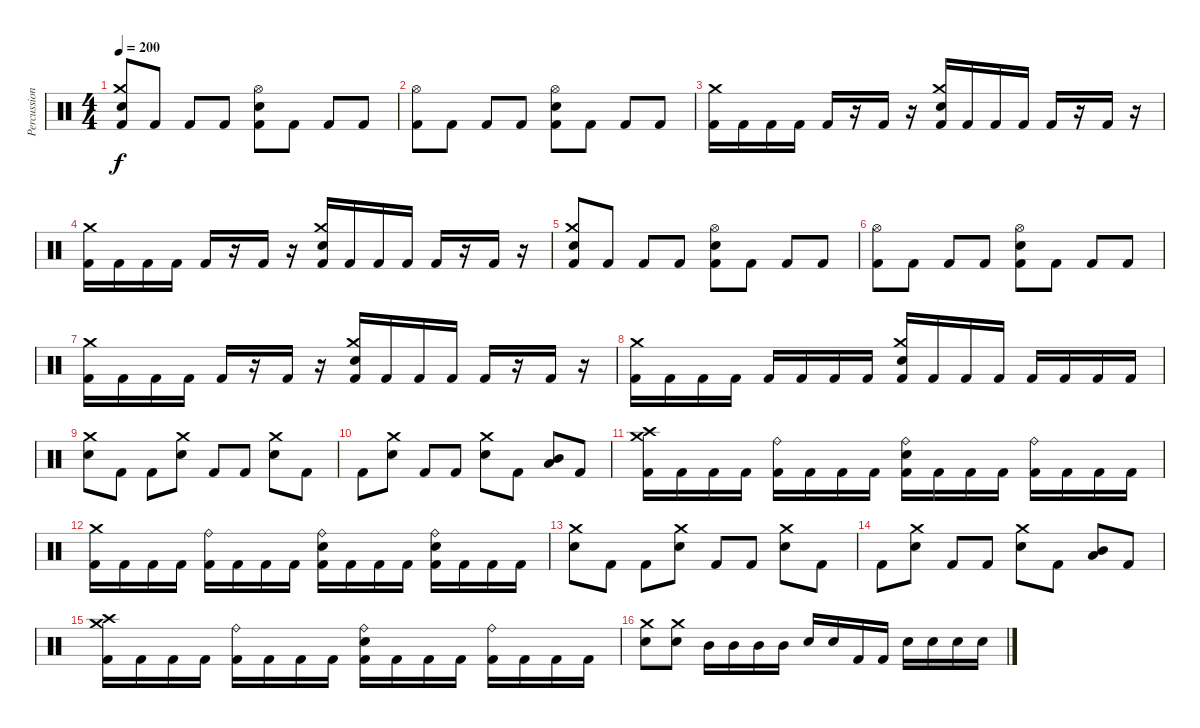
\track ("Percussion" "Percussion") {instrument percussion}
\staff {score}
\articulation defaults
\ts (4 4)
\tempo 200
\clef neutral
\ks c
("Snare (hit)" "Crash medium (hit)" "Kick (hit) 2").8{dy f} "Kick (hit) 2".8 "Kick (hit) 2".8 "Kick (hit) 2".8 ("Hi-Hat (open)" "Snare (hit) 2" "Kick (hit) 2").8 "Kick (hit) 2".8 "Kick (hit) 2".8 "Kick (hit) 2".8 |
("Hi-Hat (open)" "Kick (hit) 2").8 "Kick (hit) 2".8 "Kick (hit) 2".8 "Kick (hit) 2".8 ("Hi-Hat (open)" "Snare (hit) 2" "Kick (hit) 2").8 "Kick (hit) 2".8 "Kick (hit) 2".8 "Kick (hit) 2".8 |
("Crash medium (hit)" "Kick (hit) 2").16 "Kick (hit) 2".16 "Kick (hit) 2".16 "Kick (hit) 2".16 "Kick (hit) 2".16 r.16 "Kick (hit) 2".16 r.16 ("Crash medium (hit)" "Snare (hit) 2" "Kick (hit) 2").16 "Kick (hit) 2".16 "Kick (hit) 2".16 "Kick (hit) 2".16 "Kick (hit) 2".16 r.16 "Kick (hit) 2".16 r.16 |
("Crash medium (hit)" "Kick (hit) 2").16 "Kick (hit) 2".16 "Kick (hit) 2".16 "Kick (hit) 2".16 "Kick (hit) 2".16 r.16 "Kick (hit) 2".16 r.16 ("Crash medium (hit)" "Snare (hit) 2" "Kick (hit) 2").16 "Kick (hit) 2".16 "Kick (hit) 2".16 "Kick (hit) 2".16 "Kick (hit) 2".16 r.16 "Kick (hit) 2".16 r.16 |
("Snare (hit)" "Crash medium (hit)" "Kick (hit) 2").8 "Kick (hit) 2".8 "Kick (hit) 2".8 "Kick (hit) 2".8 ("Hi-Hat (open)" "Snare (hit) 2" "Kick (hit) 2").8 "Kick (hit) 2".8 "Kick (hit) 2".8 "Kick (hit) 2".8 |
("Hi-Hat (open)" "Kick (hit) 2").8 "Kick (hit) 2".8 "Kick (hit) 2".8 "Kick (hit) 2".8 ("Hi-Hat (open)" "Snare (hit) 2" "Kick (hit) 2").8 "Kick (hit) 2".8 "Kick (hit) 2".8 "Kick (hit) 2".8 |
("Crash medium (hit)" "Kick (hit) 2").16 "Kick (hit) 2".16 "Kick (hit) 2".16 "Kick (hit) 2".16 "Kick (hit) 2".16 r.16 "Kick (hit) 2".16 r.16 ("Crash medium (hit)" "Snare (hit) 2" "Kick (hit) 2").16 "Kick (hit) 2".16 "Kick (hit) 2".16 "Kick (hit) 2".16 "Kick (hit) 2".16 r.16 "Kick (hit) 2".16 r.16 |
("Crash medium (hit)" "Kick (hit) 2").16 "Kick (hit) 2".16 "Kick (hit) 2".16 "Kick (hit) 2".16 "Kick (hit) 2".16 "Kick (hit) 2".16 "Kick (hit) 2".16 "Kick (hit) 2".16 ("Crash medium (hit)" "Snare (hit) 2" "Kick (hit) 2").16 "Kick (hit) 2".16 "Kick (hit) 2".16 "Kick (hit) 2".16 "Kick (hit) 2".16 "Kick (hit) 2".16 "Kick (hit) 2".16 "Kick (hit) 2".16 |
("Crash medium (hit)" "Snare (hit) 2").8 "Kick (hit) 2".8 "Kick (hit) 2".8 ("Crash medium (hit)" "Snare (hit) 2").8 "Kick (hit) 2".8 "Kick (hit) 2".8 ("Crash medium (hit)" "Snare (hit) 2").8 "Kick (hit) 2".8 |
"Kick (hit) 2".8 ("Crash medium (hit)" "Snare (hit) 2").8 "Kick (hit) 2".8 "Kick (hit) 2".8 ("Crash medium (hit)" "Snare (hit) 2").8 "Kick (hit) 2".8 ("Low Tom (hit)" "Mid Tom (hit)").8 "Kick (hit) 2".8 |
("Crash high (hit)" "Crash medium (hit)" "Kick (hit) 2").16 "Kick (hit) 2".16 "Kick (hit) 2".16 "Kick (hit) 2".16 ("Ride (bell)" "Kick (hit) 2").16 "Kick (hit) 2".16 "Kick (hit) 2".16 "Kick (hit) 2".16 ("Ride (bell)" "Snare (hit) 2" "Kick (hit) 2").16 "Kick (hit) 2".16 "Kick (hit) 2".16 "Kick (hit) 2".16 ("Ride (bell)" "Kick (hit) 2").16 "Kick (hit) 2".16 "Kick (hit) 2".16 "Kick (hit) 2".16 |
("Crash medium (hit)" "Kick (hit) 2").16 "Kick (hit) 2".16 "Kick (hit) 2".16 "Kick (hit) 2".16 ("Ride (bell)" "Kick (hit) 2").16 "Kick (hit) 2".16 "Kick (hit) 2".16 "Kick (hit) 2".16 ("Ride (bell)" "Snare (hit) 2" "Kick (hit) 2").16 "Kick (hit) 2".16 "Kick (hit) 2".16 "Kick (hit) 2".16 ("Ride (bell)" "Snare (hit) 2" "Kick (hit) 2").16 "Kick (hit) 2".16 "Kick (hit) 2".16 "Kick (hit) 2".16 |
("Crash medium (hit)" "Snare (hit) 2").8 "Kick (hit) 2".8 "Kick (hit) 2".8 ("Crash medium (hit)" "Snare (hit) 2").8 "Kick (hit) 2".8 "Kick (hit) 2".8 ("Crash medium (hit)" "Snare (hit) 2").8 "Kick (hit) 2".8 |
"Kick (hit) 2".8 ("Crash medium (hit)" "Snare (hit) 2").8 "Kick (hit) 2".8 "Kick (hit) 2".8 ("Crash medium (hit)" "Snare (hit) 2").8 "Kick (hit) 2".8 ("Low Tom (hit)" "Mid Tom (hit)").8 "Kick (hit) 2".8 |
("Crash high (hit)" "Crash medium (hit)" "Kick (hit) 2").16 "Kick (hit) 2".16 "Kick (hit) 2".16 "Kick (hit) 2".16 ("Ride (bell)" "Kick (hit) 2").16 "Kick (hit) 2".16 "Kick (hit) 2".16 "Kick (hit) 2".16 ("Ride (bell)" "Snare (hit) 2" "Kick (hit) 2").16 "Kick (hit) 2".16 "Kick (hit) 2".16 "Kick (hit) 2".16 ("Ride (bell)" "Kick (hit) 2").16 "Kick (hit) 2".16 "Kick (hit) 2".16 "Kick (hit) 2".16 |
("Crash medium (hit)" "Snare (hit) 2").8 ("Crash medium (hit)" "Snare (hit) 2").8 "Mid Tom (hit)".16 "Mid Tom (hit)".16 "Mid Tom (hit)".16 "Mid Tom (hit)".16 "Snare (hit) 2".16 "Snare (hit) 2".16 "Kick (hit) 2".16 "Kick (hit) 2".16 "Snare (hit) 2".16 "Snare (hit) 2".16 "Snare (hit) 2".16 "Snare (hit) 2".16
